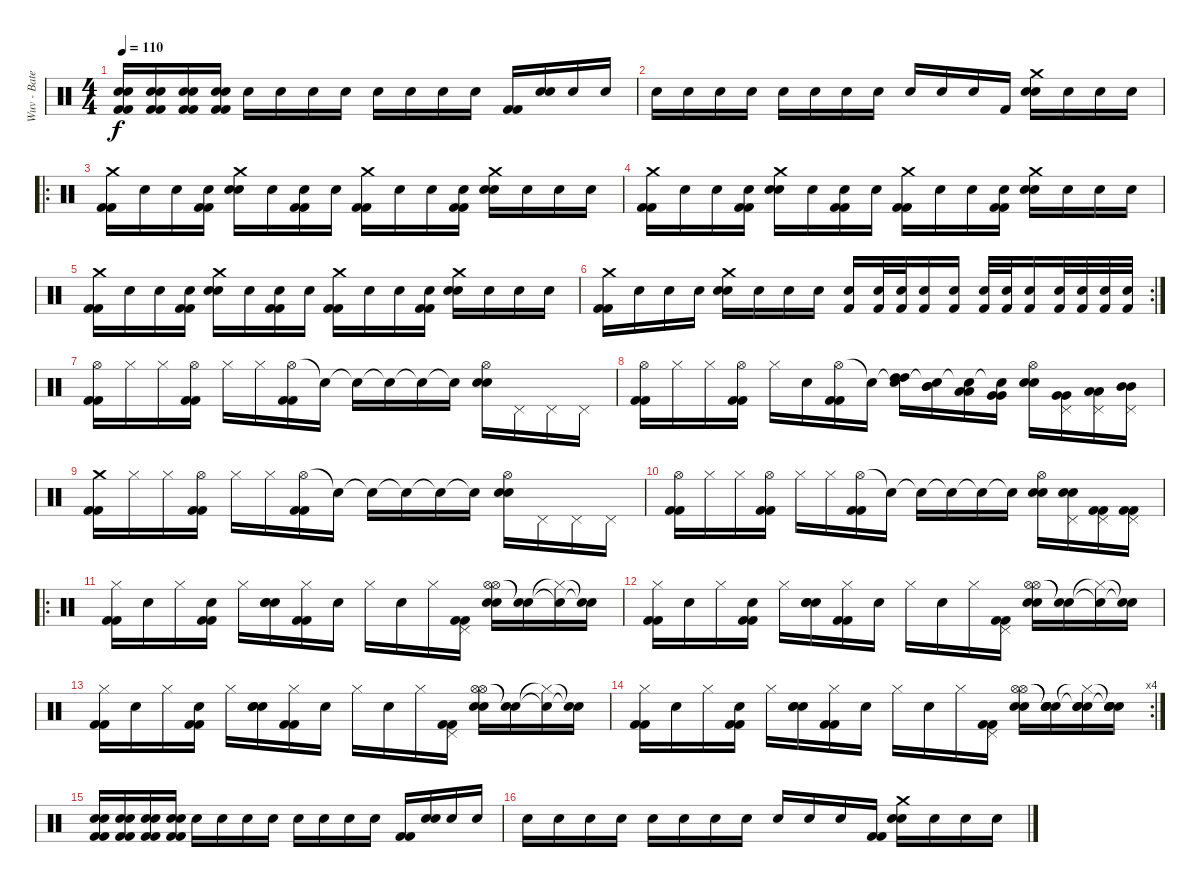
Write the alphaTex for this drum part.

\track ("Wuv - Bateria" "Wuv - Bate") {instrument percussion}
\staff {score}
\articulation defaults
\ts (4 4)
\tempo 110
\clef neutral
\ks c
("Kick (hit) 2" "Kick (hit) 2" "Electric Snare (hit)" "Electric Snare (hit)").16{dy f} ("Kick (hit) 2" "Kick (hit) 2" "Electric Snare (hit)" "Electric Snare (hit)").16 ("Kick (hit) 2" "Kick (hit) 2" "Electric Snare (hit)" "Electric Snare (hit)").16 ("Kick (hit) 2" "Kick (hit) 2" "Electric Snare (hit)" "Electric Snare (hit)").16 "Snare (hit)".16 "Snare (hit)".16 "Snare (hit)".16 "Snare (hit)".16 "Snare (hit)".16 "Snare (hit)".16 "Snare (hit)".16 "Snare (hit)".16 ("Kick (hit) 2" "Kick (hit) 2").16 ("Electric Snare (hit)" "Electric Snare (hit)").16 "Snare (hit)".16 "Snare (hit)".16 |
"Snare (hit)".16 "Snare (hit)".16 "Snare (hit)".16 "Snare (hit)".16 "Snare (hit)".16 "Snare (hit)".16 "Snare (hit)".16 "Snare (hit)".16 "Snare (hit)".16 "Snare (hit)".16 "Snare (hit)".16 "Kick (hit) 2".16 ("Crash medium (hit)" "Electric Snare (hit)" "Electric Snare (hit)").16 "Snare (hit)".16 "Snare (hit)".16 "Snare (hit)".16 |
\ro
("Crash medium (hit)" "Kick (hit) 2" "Kick (hit) 2").16 "Snare (hit)".16 "Snare (hit)".16 ("Snare (hit)" "Kick (hit) 2" "Kick (hit) 2").16 ("Crash medium (hit)" "Electric Snare (hit)" "Electric Snare (hit)").16 "Snare (hit)".16 ("Snare (hit)" "Kick (hit) 2" "Kick (hit) 2").16 "Snare (hit)".16 ("Crash medium (hit)" "Kick (hit) 2" "Kick (hit) 2").16 "Snare (hit)".16 "Snare (hit)".16 ("Snare (hit)" "Kick (hit) 2" "Kick (hit) 2").16 ("Crash medium (hit)" "Electric Snare (hit)" "Electric Snare (hit)").16 "Snare (hit)".16 "Snare (hit)".16 "Snare (hit)".16 |
("Crash medium (hit)" "Kick (hit) 2" "Kick (hit) 2").16 "Snare (hit)".16 "Snare (hit)".16 ("Snare (hit)" "Kick (hit) 2" "Kick (hit) 2").16 ("Crash medium (hit)" "Electric Snare (hit)" "Electric Snare (hit)").16 "Snare (hit)".16 ("Snare (hit)" "Kick (hit) 2" "Kick (hit) 2").16 "Snare (hit)".16 ("Crash medium (hit)" "Kick (hit) 2" "Kick (hit) 2").16 "Snare (hit)".16 "Snare (hit)".16 ("Snare (hit)" "Kick (hit) 2" "Kick (hit) 2").16 ("Crash medium (hit)" "Electric Snare (hit)" "Electric Snare (hit)").16 "Snare (hit)".16 "Snare (hit)".16 "Snare (hit)".16 |
("Crash medium (hit)" "Kick (hit) 2" "Kick (hit) 2").16 "Snare (hit)".16 "Snare (hit)".16 ("Snare (hit)" "Kick (hit) 2" "Kick (hit) 2").16 ("Crash medium (hit)" "Electric Snare (hit)" "Electric Snare (hit)").16 "Snare (hit)".16 ("Snare (hit)" "Kick (hit) 2" "Kick (hit) 2").16 "Snare (hit)".16 ("Crash medium (hit)" "Kick (hit) 2" "Kick (hit) 2").16 "Snare (hit)".16 "Snare (hit)".16 ("Snare (hit)" "Kick (hit) 2" "Kick (hit) 2").16 ("Crash medium (hit)" "Electric Snare (hit)" "Electric Snare (hit)").16 "Snare (hit)".16 "Snare (hit)".16 "Snare (hit)".16 |
\rc 2
("Crash medium (hit)" "Kick (hit) 2" "Kick (hit) 2").16 "Snare (hit)".16 "Snare (hit)".16 "Snare (hit)".16 ("Crash medium (hit)" "Electric Snare (hit)" "Electric Snare (hit)").16 "Snare (hit)".16 "Snare (hit)".16 "Snare (hit)".16 ("Electric Snare (hit)" "Kick (hit) 2").16 ("Electric Snare (hit)" "Kick (hit) 2").32 ("Electric Snare (hit)" "Kick (hit) 2").32 ("Electric Snare (hit)" "Kick (hit) 2").16 ("Electric Snare (hit)" "Kick (hit) 2").16 ("Electric Snare (hit)" "Kick (hit) 2").32 ("Electric Snare (hit)" "Kick (hit) 2").32 ("Electric Snare (hit)" "Kick (hit) 2").16 ("Electric Snare (hit)" "Kick (hit) 2").32 ("Electric Snare (hit)" "Kick (hit) 2").32 ("Electric Snare (hit)" "Kick (hit) 2").32 ("Electric Snare (hit)" "Kick (hit) 2").32 |
("Hi-Hat (open)" "Kick (hit) 2" "Kick (hit) 2").16 "Hi-Hat (closed)".16 "Hi-Hat (closed)".16 ("Hi-Hat (open)" "Kick (hit) 2" "Kick (hit) 2").16 "Hi-Hat (closed)".16 "Hi-Hat (closed)".16 ("Hi-Hat (open)" "Kick (hit) 2" "Kick (hit) 2").16 "Snare (hit)"{t}.16 "Snare (hit)"{t}.16 "Snare (hit)"{t}.16 "Snare (hit)"{t}.16 "Snare (hit)"{t}.16 ("Hi-Hat (open)" "Electric Snare (hit)" "Electric Snare (hit)").16 "Pedal Hi-Hat (hit)".16 "Pedal Hi-Hat (hit)".16 "Pedal Hi-Hat (hit)".16 |
("Hi-Hat (open)" "Kick (hit) 2" "Kick (hit) 2").16 "Hi-Hat (closed)".16 "Hi-Hat (closed)".16 ("Hi-Hat (open)" "Kick (hit) 2" "Kick (hit) 2").16 "Hi-Hat (closed)".16 "Snare (hit)".16 ("Hi-Hat (open)" "Kick (hit) 2" "Kick (hit) 2").16 "Snare (hit)"{t}.16 ("Snare (hit)"{t} "High Tom (hit)" "High Tom (hit)").16 ("Snare (hit)"{t} "Mid Tom (hit)" "Mid Tom (hit)").16 ("Snare (hit)"{t} "Low Tom (hit)" "Low Tom (hit)").16 ("Snare (hit)"{t} "Very Low Tom (hit)" "Very Low Tom (hit)").16 ("Hi-Hat (open)" "Electric Snare (hit)" "Electric Snare (hit)").16 ("Pedal Hi-Hat (hit)" "Very Low Tom (hit)" "Very Low Tom (hit)").16 ("Pedal Hi-Hat (hit)" "Low Tom (hit)" "Low Tom (hit)").16 ("Pedal Hi-Hat (hit)" "Mid Tom (hit)" "Mid Tom (hit)").16 |
("Crash medium (hit)" "Kick (hit) 2" "Kick (hit) 2").16 "Hi-Hat (closed)".16 "Hi-Hat (closed)".16 ("Hi-Hat (open)" "Kick (hit) 2" "Kick (hit) 2").16 "Hi-Hat (closed)".16 "Hi-Hat (closed)".16 ("Hi-Hat (open)" "Kick (hit) 2" "Kick (hit) 2").16 "Snare (hit)"{t}.16 "Snare (hit)"{t}.16 "Snare (hit)"{t}.16 "Snare (hit)"{t}.16 "Snare (hit)"{t}.16 ("Hi-Hat (open)" "Electric Snare (hit)" "Electric Snare (hit)").16 "Pedal Hi-Hat (hit)".16 "Pedal Hi-Hat (hit)".16 "Pedal Hi-Hat (hit)".16 |
("Hi-Hat (open)" "Kick (hit) 2" "Kick (hit) 2").16 "Hi-Hat (closed)".16 "Hi-Hat (closed)".16 ("Hi-Hat (open)" "Kick (hit) 2" "Kick (hit) 2").16 "Hi-Hat (closed)".16 "Hi-Hat (closed)".16 ("Hi-Hat (open)" "Kick (hit) 2" "Kick (hit) 2").16 "Snare (hit)"{t}.16 "Snare (hit)"{t}.16 "Snare (hit)"{t}.16 "Snare (hit)"{t}.16 "Snare (hit)"{t}.16 ("Hi-Hat (open)" "Electric Snare (hit)" "Electric Snare (hit)").16 ("Pedal Hi-Hat (hit)" "Electric Snare (hit)" "Electric Snare (hit)").16 ("Pedal Hi-Hat (hit)" "Kick (hit) 2" "Kick (hit) 2").16 ("Pedal Hi-Hat (hit)" "Kick (hit) 2" "Kick (hit) 2").16 |
\ro
("Hi-Hat (closed)" "Kick (hit) 2" "Kick (hit) 2").16 "Snare (hit)".16 "Hi-Hat (closed)".16 ("Snare (hit)" "Kick (hit) 2" "Kick (hit) 2").16 "Hi-Hat (closed)".16 ("Snare (hit)" "Electric Snare (hit)" "Electric Snare (hit)").16 ("Hi-Hat (closed)" "Kick (hit) 2" "Kick (hit) 2").16 "Snare (hit)".16 "Hi-Hat (closed)".16 "Snare (hit)".16 "Hi-Hat (closed)".16 ("Pedal Hi-Hat (hit)" "Kick (hit) 2" "Kick (hit) 2").16 ("Hi-Hat (open)" "Hi-Hat (open)" "Electric Snare (hit)" "Electric Snare (hit)").16 ("Snare (hit)"{t} "Snare (hit)"{t}).16 ("Hi-Hat (closed)"{t} "Snare (hit)"{t}).16 ("Snare (hit)"{t} "Snare (hit)"{t}).16 |
("Hi-Hat (closed)" "Kick (hit) 2" "Kick (hit) 2").16 "Snare (hit)".16 "Hi-Hat (closed)".16 ("Snare (hit)" "Kick (hit) 2" "Kick (hit) 2").16 "Hi-Hat (closed)".16 ("Snare (hit)" "Electric Snare (hit)" "Electric Snare (hit)").16 ("Hi-Hat (closed)" "Kick (hit) 2" "Kick (hit) 2").16 "Snare (hit)".16 "Hi-Hat (closed)".16 "Snare (hit)".16 "Hi-Hat (closed)".16 ("Pedal Hi-Hat (hit)" "Kick (hit) 2" "Kick (hit) 2").16 ("Hi-Hat (open)" "Hi-Hat (open)" "Electric Snare (hit)" "Electric Snare (hit)").16 ("Snare (hit)"{t} "Snare (hit)"{t}).16 ("Hi-Hat (closed)"{t} "Snare (hit)"{t}).16 ("Snare (hit)"{t} "Snare (hit)"{t}).16 |
("Hi-Hat (closed)" "Kick (hit) 2" "Kick (hit) 2").16 "Snare (hit)".16 "Hi-Hat (closed)".16 ("Snare (hit)" "Kick (hit) 2" "Kick (hit) 2").16 "Hi-Hat (closed)".16 ("Snare (hit)" "Electric Snare (hit)" "Electric Snare (hit)").16 ("Hi-Hat (closed)" "Kick (hit) 2" "Kick (hit) 2").16 "Snare (hit)".16 "Hi-Hat (closed)".16 "Snare (hit)".16 "Hi-Hat (closed)".16 ("Pedal Hi-Hat (hit)" "Kick (hit) 2" "Kick (hit) 2").16 ("Hi-Hat (open)" "Hi-Hat (open)" "Electric Snare (hit)" "Electric Snare (hit)").16 ("Snare (hit)"{t} "Snare (hit)"{t}).16 ("Hi-Hat (closed)"{t} "Snare (hit)"{t}).16 ("Snare (hit)"{t} "Snare (hit)"{t}).16 |
\rc 4
("Hi-Hat (closed)" "Kick (hit) 2" "Kick (hit) 2").16 "Snare (hit)".16 "Hi-Hat (closed)".16 ("Snare (hit)" "Kick (hit) 2" "Kick (hit) 2").16 "Hi-Hat (closed)".16 ("Snare (hit)" "Electric Snare (hit)" "Electric Snare (hit)").16 ("Hi-Hat (closed)" "Kick (hit) 2" "Kick (hit) 2").16 "Snare (hit)".16 "Hi-Hat (closed)".16 "Snare (hit)".16 "Hi-Hat (closed)".16 ("Pedal Hi-Hat (hit)" "Kick (hit) 2" "Kick (hit) 2").16 ("Hi-Hat (open)" "Hi-Hat (open)" "Electric Snare (hit)" "Electric Snare (hit)").16 ("Snare (hit)"{t} "Snare (hit)"{t} "Electric Snare (hit)" "Electric Snare (hit)").16 ("Hi-Hat (closed)"{t} "Snare (hit)"{t} "Electric Snare (hit)" "Electric Snare (hit)").16 ("Snare (hit)"{t} "Snare (hit)"{t} "Electric Snare (hit)" "Electric Snare (hit)").16 |
("Kick (hit) 2" "Kick (hit) 2" "Electric Snare (hit)" "Electric Snare (hit)").16 ("Kick (hit) 2" "Kick (hit) 2" "Electric Snare (hit)" "Electric Snare (hit)").16 ("Kick (hit) 2" "Kick (hit) 2" "Electric Snare (hit)" "Electric Snare (hit)").16 ("Kick (hit) 2" "Kick (hit) 2" "Electric Snare (hit)" "Electric Snare (hit)").16 "Snare (hit)".16 "Snare (hit)".16 "Snare (hit)".16 "Snare (hit)".16 "Snare (hit)".16 "Snare (hit)".16 "Snare (hit)".16 "Snare (hit)".16 ("Kick (hit) 2" "Kick (hit) 2").16 ("Electric Snare (hit)" "Electric Snare (hit)").16 "Snare (hit)".16 "Snare (hit)".16 |
"Snare (hit)".16 "Snare (hit)".16 "Snare (hit)".16 "Snare (hit)".16 "Snare (hit)".16 "Snare (hit)".16 "Snare (hit)".16 "Snare (hit)".16 "Snare (hit)".16 "Snare (hit)".16 "Snare (hit)".16 ("Kick (hit) 2" "Kick (hit) 2").16 ("Crash medium (hit)" "Electric Snare (hit)" "Electric Snare (hit)").16 "Snare (hit)".16 "Snare (hit)".16 "Snare (hit)".16
